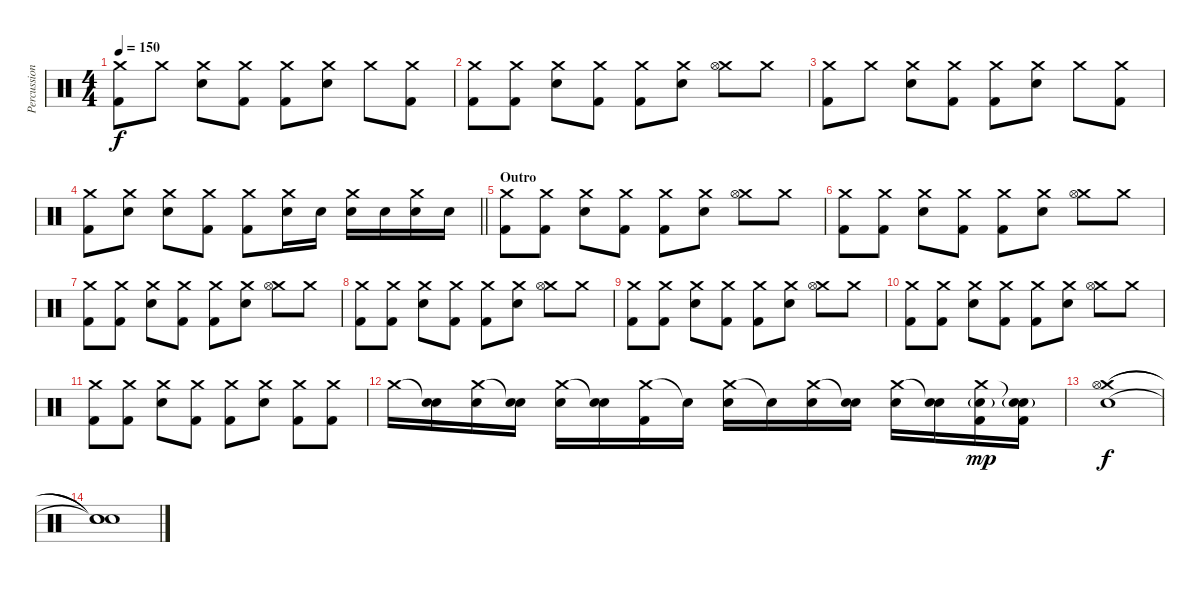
\track ("Percussion" "Percussion") {instrument percussion}
\staff {score}
\articulation defaults
\ts (4 4)
\tempo 150
\clef neutral
\ks c
("Crash medium (hit)" "Kick (hit) 2").8{dy f} "Crash medium (hit)".8 ("Crash medium (hit)" "Electric Snare (hit)").8 ("Crash medium (hit)" "Kick (hit) 2").8 ("Crash medium (hit)" "Kick (hit) 2").8 ("Crash medium (hit)" "Electric Snare (hit)").8 "Crash medium (hit)".8 ("Crash medium (hit)" "Kick (hit) 2").8 |
("Crash medium (hit)" "Kick (hit) 2").8 ("Crash medium (hit)" "Kick (hit) 2").8 ("Crash medium (hit)" "Electric Snare (hit)").8 ("Crash medium (hit)" "Kick (hit) 2").8 ("Crash medium (hit)" "Kick (hit) 2").8 ("Crash medium (hit)" "Electric Snare (hit)").8 ("Crash medium (hit)" "Hi-Hat (open)").8 "Crash medium (hit)".8 |
("Crash medium (hit)" "Kick (hit) 2").8 "Crash medium (hit)".8 ("Crash medium (hit)" "Electric Snare (hit)").8 ("Crash medium (hit)" "Kick (hit) 2").8 ("Crash medium (hit)" "Kick (hit) 2").8 ("Crash medium (hit)" "Electric Snare (hit)").8 "Crash medium (hit)".8 ("Crash medium (hit)" "Kick (hit) 2").8 |
\barLineRight lightlight
("Crash medium (hit)" "Kick (hit) 2").8 ("Crash medium (hit)" "Electric Snare (hit)").8 ("Crash medium (hit)" "Electric Snare (hit)").8 ("Crash medium (hit)" "Kick (hit) 2").8 ("Crash medium (hit)" "Kick (hit) 2").8 ("Crash medium (hit)" "Electric Snare (hit)").16 "Electric Snare (hit)".16 ("Crash medium (hit)" "Electric Snare (hit)").16 "Electric Snare (hit)".16 ("Crash medium (hit)" "Electric Snare (hit)").16 "Electric Snare (hit)".16 |
\section ("" "Outro")
("Crash medium (hit)" "Kick (hit) 2").8 ("Crash medium (hit)" "Kick (hit) 2").8 ("Crash medium (hit)" "Electric Snare (hit)").8 ("Crash medium (hit)" "Kick (hit) 2").8 ("Crash medium (hit)" "Kick (hit) 2").8 ("Crash medium (hit)" "Electric Snare (hit)").8 ("Crash medium (hit)" "Hi-Hat (open)").8 "Crash medium (hit)".8 |
("Crash medium (hit)" "Kick (hit) 2").8 ("Crash medium (hit)" "Kick (hit) 2").8 ("Crash medium (hit)" "Electric Snare (hit)").8 ("Crash medium (hit)" "Kick (hit) 2").8 ("Crash medium (hit)" "Kick (hit) 2").8 ("Crash medium (hit)" "Electric Snare (hit)").8 ("Crash medium (hit)" "Hi-Hat (open)").8 "Crash medium (hit)".8 |
("Crash medium (hit)" "Kick (hit) 2").8 ("Crash medium (hit)" "Kick (hit) 2").8 ("Crash medium (hit)" "Electric Snare (hit)").8 ("Crash medium (hit)" "Kick (hit) 2").8 ("Crash medium (hit)" "Kick (hit) 2").8 ("Crash medium (hit)" "Electric Snare (hit)").8 ("Crash medium (hit)" "Hi-Hat (open)").8 "Crash medium (hit)".8 |
("Crash medium (hit)" "Kick (hit) 2").8 ("Crash medium (hit)" "Kick (hit) 2").8 ("Crash medium (hit)" "Electric Snare (hit)").8 ("Crash medium (hit)" "Kick (hit) 2").8 ("Crash medium (hit)" "Kick (hit) 2").8 ("Crash medium (hit)" "Electric Snare (hit)").8 ("Crash medium (hit)" "Hi-Hat (open)").8 "Crash medium (hit)".8 |
("Crash medium (hit)" "Kick (hit) 2").8 ("Crash medium (hit)" "Kick (hit) 2").8 ("Crash medium (hit)" "Electric Snare (hit)").8 ("Crash medium (hit)" "Kick (hit) 2").8 ("Crash medium (hit)" "Kick (hit) 2").8 ("Crash medium (hit)" "Electric Snare (hit)").8 ("Crash medium (hit)" "Hi-Hat (open)").8 "Crash medium (hit)".8 |
("Crash medium (hit)" "Kick (hit) 2").8 ("Crash medium (hit)" "Kick (hit) 2").8 ("Crash medium (hit)" "Electric Snare (hit)").8 ("Crash medium (hit)" "Kick (hit) 2").8 ("Crash medium (hit)" "Kick (hit) 2").8 ("Crash medium (hit)" "Electric Snare (hit)").8 ("Crash medium (hit)" "Hi-Hat (open)").8 "Crash medium (hit)".8 |
("Crash medium (hit)" "Kick (hit) 2").8 ("Crash medium (hit)" "Kick (hit) 2").8 ("Crash medium (hit)" "Electric Snare (hit)").8 ("Crash medium (hit)" "Kick (hit) 2").8 ("Crash medium (hit)" "Kick (hit) 2").8 ("Crash medium (hit)" "Electric Snare (hit)").8 ("Crash medium (hit)" "Kick (hit) 2").8 ("Crash medium (hit)" "Kick (hit) 2").8 |
"Crash medium (hit)".16 ("Snare (hit)"{t} "Electric Snare (hit)").16 ("Crash medium (hit)" "Electric Snare (hit)").16 ("Snare (hit)"{t} "Electric Snare (hit)").16 ("Crash medium (hit)" "Electric Snare (hit)").16 ("Snare (hit)"{t} "Electric Snare (hit)").16 ("Crash medium (hit)" "Kick (hit) 2").16 "Snare (hit)"{t}.16 ("Crash medium (hit)" "Electric Snare (hit)").16 "Snare (hit)"{t}.16 ("Crash medium (hit)" "Electric Snare (hit)").16 ("Snare (hit)"{t} "Electric Snare (hit)").16 ("Crash medium (hit)" "Electric Snare (hit)").16 ("Snare (hit)"{t} "Electric Snare (hit)").16 ("Crash medium (hit)" "Electric Snare (hit)"{g} "Kick (hit) 2").16{dy mp} ("Snare (hit)"{t} "Electric Snare (hit)"{g} "Kick (hit) 2").16 |
("Crash medium (hit)" "Hi-Hat (open)" "Electric Snare (hit)").1{dy f} |
("Snare (hit)"{t} "Snare (hit)"{t} "Snare (hit)"{t}).1
